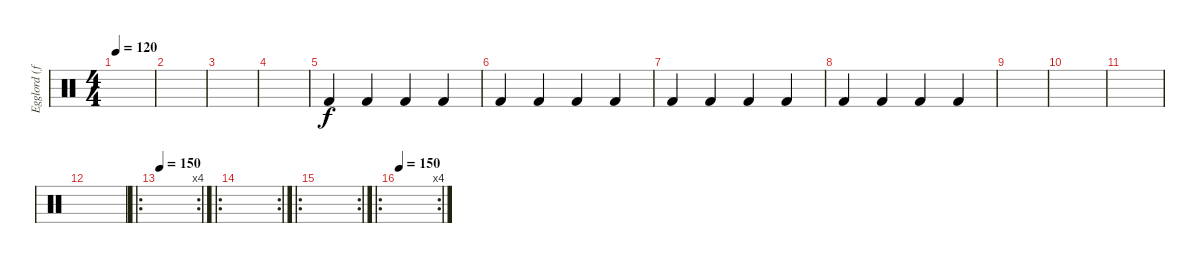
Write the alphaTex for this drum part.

\track ("Egglord (fills etc)" "Egglord (f") {instrument percussion}
\staff {score}
\articulation defaults
\ts (4 4)
\tempo 120
\clef neutral
\ks c
|
|
|
|
"Kick (hit) 2".4 "Kick (hit) 2".4 "Kick (hit) 2".4 "Kick (hit) 2".4 |
"Kick (hit) 2".4 "Kick (hit) 2".4 "Kick (hit) 2".4 "Kick (hit) 2".4 |
"Kick (hit) 2".4 "Kick (hit) 2".4 "Kick (hit) 2".4 "Kick (hit) 2".4 |
"Kick (hit) 2".4 "Kick (hit) 2".4 "Kick (hit) 2".4 "Kick (hit) 2".4 |
|
|
|
|
\ro
\rc 4
\tempo 150
|
\ro
\rc 2
|
\ro
\rc 2
|
\ro
\rc 4
\tempo 150
